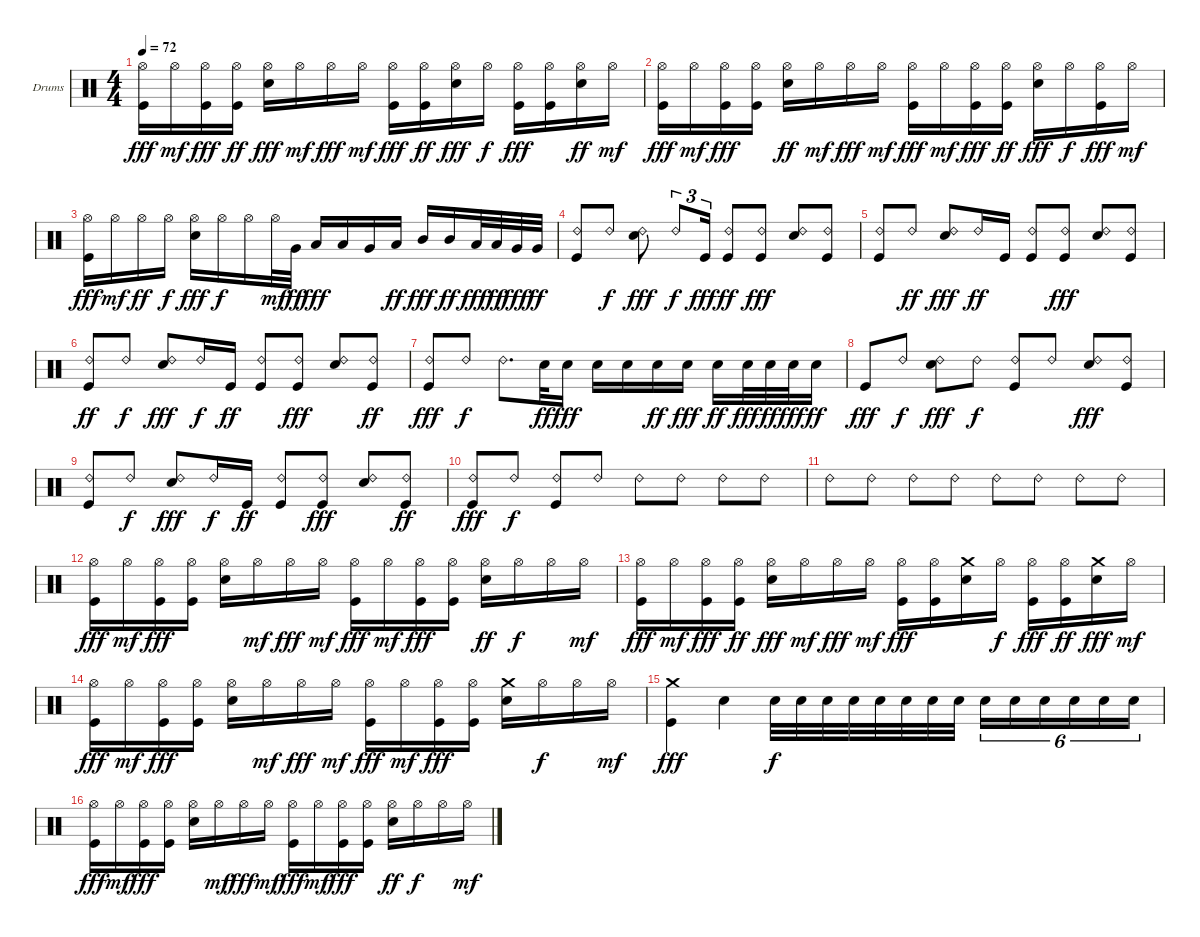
\bracketExtendMode groupsimilarinstruments
\firstSystemTrackNameOrientation horizontal
\otherSystemsTrackNameOrientation horizontal
\track ("Drumkit" "Drums") {instrument percussion}
\staff {score}
\articulation defaults
\ts (4 4)
\tempo 72
\clef neutral
\ks c
("Kick (hit)" "Hi-Hat (open)").16{dy fff} "Hi-Hat (open)".16{dy mf} ("Kick (hit)" "Hi-Hat (open)").16{dy fff} ("Kick (hit)" "Hi-Hat (open)").16{dy ff} ("Snare (hit) 2" "Hi-Hat (open)").16{dy fff} "Hi-Hat (open)".16{dy mf} "Hi-Hat (open)".16{dy fff} "Hi-Hat (open)".16{dy mf} ("Kick (hit)" "Hi-Hat (open)").16{dy fff} ("Kick (hit)" "Hi-Hat (open)").16{dy ff} ("Snare (hit) 2" "Hi-Hat (open)").16{dy fff} "Hi-Hat (open)".16{dy f} ("Kick (hit)" "Hi-Hat (open)").16{dy fff} ("Kick (hit)" "Hi-Hat (open)").16 ("Snare (hit) 2" "Hi-Hat (open)").16{dy ff} "Hi-Hat (open)".16{dy mf} |
("Kick (hit)" "Hi-Hat (open)").16{dy fff} "Hi-Hat (open)".16{dy mf} ("Kick (hit)" "Hi-Hat (open)").16{dy fff} ("Kick (hit)" "Hi-Hat (open)").16 ("Snare (hit) 2" "Hi-Hat (open)").16{dy ff} "Hi-Hat (open)".16{dy mf} "Hi-Hat (open)".16{dy fff} "Hi-Hat (open)".16{dy mf} ("Kick (hit)" "Hi-Hat (open)").16{dy fff} "Hi-Hat (open)".16{dy mf} ("Kick (hit)" "Hi-Hat (open)").16{dy fff} ("Kick (hit)" "Hi-Hat (open)").16{dy ff} ("Snare (hit) 2" "Hi-Hat (open)").16{dy fff} "Hi-Hat (open)".16{dy f} ("Kick (hit)" "Hi-Hat (open)").16{dy fff} "Hi-Hat (open)".16{dy mf} |
("Kick (hit)" "Hi-Hat (open)").16{dy fff} "Hi-Hat (open)".16{dy mf} "Hi-Hat (open)".16{dy ff} "Hi-Hat (open)".16{dy f} ("Snare (hit) 2" "Hi-Hat (open)").16{dy fff} "Hi-Hat (open)".16{dy f} "Hi-Hat (open)".16 "Hi-Hat (open)".32{dy mf} "Very Low Tom (hit)".32{dy ff} "Low Tom (hit)".16{dy fff} "Low Tom (hit)".16 "Very Low Tom (hit)".16 "Low Tom (hit)".16{dy ff} "Mid Tom (hit)".16{dy fff} "Mid Tom (hit)".16{dy ff} "Low Tom (hit)".32{dy fff} "Low Tom (hit)".32{dy ff} "Very Low Tom (hit)".32{dy fff} "Very Low Tom (hit)".32{dy ff} |
("Ride (bell) 2" "Kick (hit)").8 "Ride (bell) 2".8{dy f} ("Snare (hit) 2" "Ride (bell) 2").8{dy fff} "Ride (bell) 2".8{tu (3 2) dy f} "Kick (hit)".16{tu (3 2) dy fff} ("Ride (bell) 2" "Kick (hit)").8{dy ff} ("Kick (hit)" "Ride (bell) 2").8{dy fff} ("Snare (hit) 2" "Ride (bell) 2").8 ("Kick (hit)" "Ride (bell) 2").8 |
("Kick (hit)" "Ride (bell) 2").8 "Ride (bell) 2".8{dy ff} ("Snare (hit) 2" "Ride (bell) 2").8{dy fff} "Ride (bell) 2".16{dy ff} "Kick (hit)".16 ("Kick (hit)" "Ride (bell) 2").8 ("Kick (hit)" "Ride (bell) 2").8{dy fff} ("Snare (hit) 2" "Ride (bell) 2").8 ("Kick (hit)" "Ride (bell) 2").8 |
("Kick (hit)" "Ride (bell) 2").8{dy ff} "Ride (bell) 2".8{dy f} ("Snare (hit) 2" "Ride (bell) 2").8{dy fff} "Ride (bell) 2".16{dy f} "Kick (hit)".16{dy ff} ("Kick (hit)" "Ride (bell) 2").8 ("Kick (hit)" "Ride (bell) 2").8{dy fff} ("Snare (hit) 2" "Ride (bell) 2").8 ("Kick (hit)" "Ride (bell) 2").8{dy ff} |
("Kick (hit)" "Ride (bell) 2").8{dy fff} "Ride (bell) 2".8{dy f} "Ride (bell) 2".8{d} "Snare (hit) 2".32{dy ff} "Snare (hit) 2".16{dy fff} "Snare (hit) 2".16 "Snare (hit) 2".16 "Snare (hit) 2".16{dy ff} "Snare (hit) 2".16{dy fff} "Snare (hit) 2".16{dy ff} "Snare (hit) 2".32{dy fff} "Snare (hit) 2".32{dy ff} "Snare (hit) 2".32{dy fff} "Snare (hit) 2".16{dy ff} |
"Kick (hit)".8{dy fff} "Ride (bell) 2".8{dy f} ("Snare (hit) 2" "Ride (bell) 2").8{dy fff} "Ride (bell) 2".8{dy f} ("Ride (bell) 2" "Kick (hit)").8 "Ride (bell) 2".8 ("Snare (hit) 2" "Ride (bell) 2").8{dy fff} ("Kick (hit)" "Ride (bell) 2").8 |
("Kick (hit)" "Ride (bell) 2").8 "Ride (bell) 2".8{dy f} ("Snare (hit) 2" "Ride (bell) 2").8{dy fff} "Ride (bell) 2".16{dy f} "Kick (hit)".16{dy ff} ("Kick (hit)" "Ride (bell) 2").8 ("Kick (hit)" "Ride (bell) 2").8{dy fff} ("Snare (hit) 2" "Ride (bell) 2").8 ("Kick (hit)" "Ride (bell) 2").8{dy ff} |
("Kick (hit)" "Ride (bell) 2").8{dy fff} "Ride (bell) 2".8{dy f} ("Ride (bell) 2" "Kick (hit)").8 "Ride (bell) 2".8 "Ride (bell) 2".8 "Ride (bell) 2".8 "Ride (bell) 2".8 "Ride (bell) 2".8 |
"Ride (bell) 2".8 "Ride (bell) 2".8 "Ride (bell) 2".8 "Ride (bell) 2".8 "Ride (bell) 2".8 "Ride (bell) 2".8 "Ride (bell) 2".8 "Ride (bell) 2".8 |
("Kick (hit)" "Hi-Hat (open)").16{dy fff} "Hi-Hat (open)".16{dy mf} ("Kick (hit)" "Hi-Hat (open)").16{dy fff} ("Kick (hit)" "Hi-Hat (open)").16 ("Snare (hit) 2" "Hi-Hat (open)").16 "Hi-Hat (open)".16{dy mf} "Hi-Hat (open)".16{dy fff} "Hi-Hat (open)".16{dy mf} ("Kick (hit)" "Hi-Hat (open)").16{dy fff} "Hi-Hat (open)".16{dy mf} ("Kick (hit)" "Hi-Hat (open)").16{dy fff} ("Kick (hit)" "Hi-Hat (open)").16 ("Snare (hit) 2" "Hi-Hat (open)").16{dy ff} "Hi-Hat (open)".16{dy f} "Hi-Hat (open)".16 "Hi-Hat (open)".16{dy mf} |
("Kick (hit)" "Hi-Hat (open)").16{dy fff} "Hi-Hat (open)".16{dy mf} ("Kick (hit)" "Hi-Hat (open)").16{dy fff} ("Kick (hit)" "Hi-Hat (open)").16{dy ff} ("Snare (hit) 2" "Hi-Hat (open)").16{dy fff} "Hi-Hat (open)".16{dy mf} "Hi-Hat (open)".16{dy fff} "Hi-Hat (open)".16{dy mf} ("Kick (hit)" "Hi-Hat (open)").16{dy fff} ("Kick (hit)" "Hi-Hat (open)").16 ("Snare (hit) 2" "Crash medium (hit)").16 "Hi-Hat (open)".16{dy f} ("Kick (hit)" "Hi-Hat (open)").16{dy fff} ("Kick (hit)" "Hi-Hat (open)").16{dy ff} ("Snare (hit) 2" "Crash medium (hit)").16{dy fff} "Hi-Hat (open)".16{dy mf} |
("Kick (hit)" "Hi-Hat (open)").16{dy fff} "Hi-Hat (open)".16{dy mf} ("Kick (hit)" "Hi-Hat (open)").16{dy fff} ("Kick (hit)" "Hi-Hat (open)").16 ("Snare (hit) 2" "Hi-Hat (open)").16 "Hi-Hat (open)".16{dy mf} "Hi-Hat (open)".16{dy fff} "Hi-Hat (open)".16{dy mf} ("Kick (hit)" "Hi-Hat (open)").16{dy fff} "Hi-Hat (open)".16{dy mf} ("Kick (hit)" "Hi-Hat (open)").16{dy fff} ("Kick (hit)" "Hi-Hat (open)").16 ("Snare (hit) 2" "Crash medium (hit)").16 "Hi-Hat (open)".16{dy f} "Hi-Hat (open)".16 "Hi-Hat (open)".16{dy mf} |
("Kick (hit)" "Crash medium (hit)").4{dy fff} "Snare (hit) 2".4 "Snare (hit) 2".32{dy f} "Snare (hit) 2".32 "Snare (hit) 2".32 "Snare (hit) 2".32 "Snare (hit) 2".32 "Snare (hit) 2".32 "Snare (hit) 2".32 "Snare (hit) 2".32 "Snare (hit) 2".16{tu (6 4)} "Snare (hit) 2".16{tu (6 4)} "Snare (hit) 2".16{tu (6 4)} "Snare (hit) 2".16{tu (6 4)} "Snare (hit) 2".16{tu (6 4)} "Snare (hit) 2".16{tu (6 4)} |
("Kick (hit)" "Hi-Hat (open)").16{dy fff} "Hi-Hat (open)".16{dy mf} ("Kick (hit)" "Hi-Hat (open)").16{dy fff} ("Kick (hit)" "Hi-Hat (open)").16 ("Snare (hit) 2" "Hi-Hat (open)").16 "Hi-Hat (open)".16{dy mf} "Hi-Hat (open)".16{dy fff} "Hi-Hat (open)".16{dy mf} ("Kick (hit)" "Hi-Hat (open)").16{dy fff} "Hi-Hat (open)".16{dy mf} ("Kick (hit)" "Hi-Hat (open)").16{dy fff} ("Kick (hit)" "Hi-Hat (open)").16 ("Snare (hit) 2" "Hi-Hat (open)").16{dy ff} "Hi-Hat (open)".16{dy f} "Hi-Hat (open)".16 "Hi-Hat (open)".16{dy mf}
